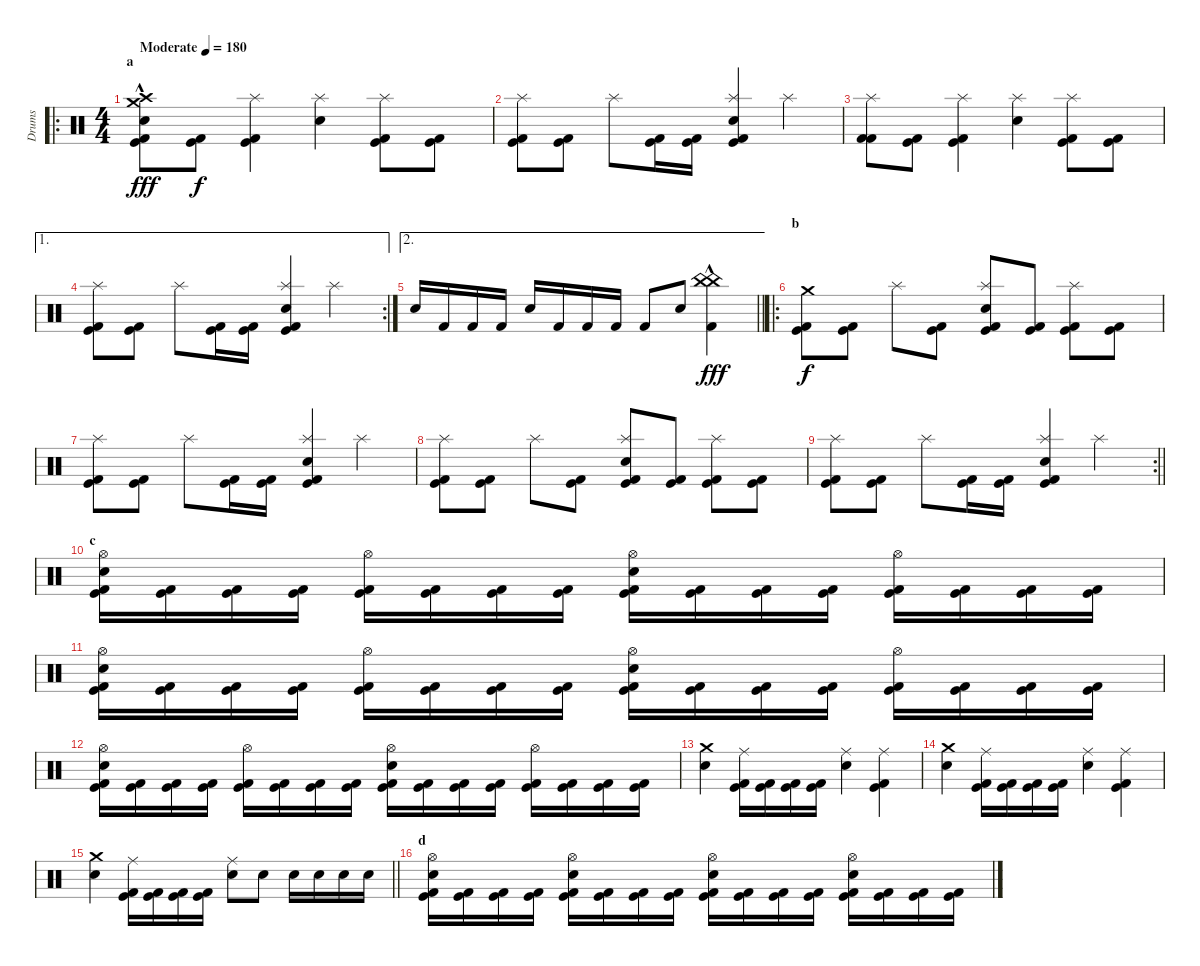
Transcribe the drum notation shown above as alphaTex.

\track ("Drums" "Drums") {instrument percussion}
\staff {score}
\articulation defaults
\ro
\ts (4 4)
\section ("" "a")
\tempo (180 "Moderate")
\clef neutral
\ks c
("Kick (hit) 2" "Snare (hit) 2" "Kick (hit)" "Crash high (hit)"{hac} "Crash medium (hit)"{hac}).8{dy fff} ("Kick (hit) 2" "Kick (hit)").8{dy f} ("Kick (hit) 2" "Kick (hit)" "Splash (hit)").4 ("Electric Snare (hit)" "Splash (hit)").4 ("Kick (hit) 2" "Kick (hit)" "Splash (hit)").8 ("Kick (hit) 2" "Kick (hit)").8 |
("Kick (hit) 2" "Kick (hit)" "Splash (hit)").8 ("Kick (hit) 2" "Kick (hit)").8 "Splash (hit)".8 ("Kick (hit) 2" "Kick (hit)").16 ("Kick (hit) 2" "Kick (hit)").16 ("Kick (hit) 2" "Electric Snare (hit)" "Kick (hit)" "Splash (hit)").4 "Splash (hit)".4 |
("Kick (hit) 2" "Kick (hit) 2" "Splash (hit)").8 ("Kick (hit) 2" "Kick (hit)").8 ("Kick (hit) 2" "Kick (hit)" "Splash (hit)").4 ("Electric Snare (hit)" "Splash (hit)").4 ("Kick (hit) 2" "Kick (hit)" "Splash (hit)").8 ("Kick (hit) 2" "Kick (hit)").8 |
\ae 1
\rc 2
("Kick (hit) 2" "Kick (hit)" "Splash (hit)").8 ("Kick (hit) 2" "Kick (hit)").8 "Splash (hit)".8 ("Kick (hit) 2" "Kick (hit)").16 ("Kick (hit) 2" "Kick (hit)").16 ("Kick (hit) 2" "Electric Snare (hit)" "Kick (hit)" "Splash (hit)").4 "Splash (hit)".4 |
\ae 2
\barLineRight lightlight "Electric Snare (hit)".16 "Kick (hit) 2".16 "Kick (hit) 2".16 "Kick (hit) 2".16 "Electric Snare (hit)".16 "Kick (hit) 2".16 "Kick (hit) 2".16 "Kick (hit) 2".16 "Kick (hit) 2".8 "Electric Snare (hit)".8
("Kick (hit) 2" "China (hit)"{hac} "China (hit)"{hac}).4{dy fff} |
\ro
\section ("" "b")
("Kick (hit) 2" "Kick (hit)" "Crash medium (hit)").8{dy f} ("Kick (hit) 2" "Kick (hit)").8 "Splash (hit)".8 ("Kick (hit) 2" "Kick (hit)").8 ("Kick (hit) 2" "Kick (hit)" "Splash (hit)" "Electric Snare (hit)").8 ("Kick (hit) 2" "Kick (hit)").8 ("Kick (hit) 2" "Kick (hit)" "Splash (hit)").8 ("Kick (hit) 2" "Kick (hit)").8 |
("Kick (hit) 2" "Kick (hit)" "Splash (hit)").8 ("Kick (hit) 2" "Kick (hit)").8 "Splash (hit)".8 ("Kick (hit) 2" "Kick (hit)").16 ("Kick (hit) 2" "Kick (hit)").16 ("Kick (hit) 2" "Electric Snare (hit)" "Kick (hit)" "Splash (hit)").4 "Splash (hit)".4 |
("Kick (hit) 2" "Kick (hit)" "Splash (hit)").8 ("Kick (hit) 2" "Kick (hit)").8 "Splash (hit)".8 ("Kick (hit) 2" "Kick (hit)").8 ("Kick (hit) 2" "Kick (hit)" "Splash (hit)" "Electric Snare (hit)").8 ("Kick (hit) 2" "Kick (hit)").8 ("Kick (hit) 2" "Kick (hit)" "Splash (hit)").8 ("Kick (hit) 2" "Kick (hit)").8 |
\rc 2
\barLineRight lightlight
("Kick (hit) 2" "Kick (hit)" "Splash (hit)").8 ("Kick (hit) 2" "Kick (hit)").8 "Splash (hit)".8 ("Kick (hit) 2" "Kick (hit)").16 ("Kick (hit) 2" "Kick (hit)").16 ("Kick (hit) 2" "Electric Snare (hit)" "Kick (hit)" "Splash (hit)").4 "Splash (hit)".4 |
\section ("" "c")
("Kick (hit)" "Kick (hit) 2" "Hi-Hat (open)" "Electric Snare (hit)").16 ("Kick (hit)" "Kick (hit) 2").16 ("Kick (hit)" "Kick (hit) 2").16 ("Kick (hit)" "Kick (hit) 2").16 ("Kick (hit)" "Kick (hit) 2" "Hi-Hat (open)").16 ("Kick (hit)" "Kick (hit) 2").16 ("Kick (hit)" "Kick (hit) 2").16 ("Kick (hit)" "Kick (hit) 2").16 ("Kick (hit)" "Kick (hit) 2" "Hi-Hat (open)" "Electric Snare (hit)").16 ("Kick (hit)" "Kick (hit) 2").16 ("Kick (hit)" "Kick (hit) 2").16 ("Kick (hit)" "Kick (hit) 2").16 ("Kick (hit)" "Kick (hit) 2" "Hi-Hat (open)").16 ("Kick (hit)" "Kick (hit) 2").16 ("Kick (hit)" "Kick (hit) 2").16 ("Kick (hit)" "Kick (hit) 2").16 |
("Kick (hit)" "Kick (hit) 2" "Hi-Hat (open)" "Electric Snare (hit)").16 ("Kick (hit)" "Kick (hit) 2").16 ("Kick (hit)" "Kick (hit) 2").16 ("Kick (hit)" "Kick (hit) 2").16 ("Kick (hit)" "Kick (hit) 2" "Hi-Hat (open)").16 ("Kick (hit)" "Kick (hit) 2").16 ("Kick (hit)" "Kick (hit) 2").16 ("Kick (hit)" "Kick (hit) 2").16 ("Kick (hit)" "Kick (hit) 2" "Hi-Hat (open)" "Electric Snare (hit)").16 ("Kick (hit)" "Kick (hit) 2").16 ("Kick (hit)" "Kick (hit) 2").16 ("Kick (hit)" "Kick (hit) 2").16 ("Kick (hit)" "Kick (hit) 2" "Hi-Hat (open)").16 ("Kick (hit)" "Kick (hit) 2").16 ("Kick (hit)" "Kick (hit) 2").16 ("Kick (hit)" "Kick (hit) 2").16 |
("Kick (hit)" "Kick (hit) 2" "Hi-Hat (open)" "Electric Snare (hit)").16 ("Kick (hit)" "Kick (hit) 2").16 ("Kick (hit)" "Kick (hit) 2").16 ("Kick (hit)" "Kick (hit) 2").16 ("Kick (hit)" "Kick (hit) 2" "Hi-Hat (open)").16 ("Kick (hit)" "Kick (hit) 2").16 ("Kick (hit)" "Kick (hit) 2").16 ("Kick (hit)" "Kick (hit) 2").16 ("Kick (hit)" "Kick (hit) 2" "Hi-Hat (open)" "Electric Snare (hit)").16 ("Kick (hit)" "Kick (hit) 2").16 ("Kick (hit)" "Kick (hit) 2").16 ("Kick (hit)" "Kick (hit) 2").16 ("Kick (hit)" "Kick (hit) 2" "Hi-Hat (open)").16 ("Kick (hit)" "Kick (hit) 2").16 ("Kick (hit)" "Kick (hit) 2").16 ("Kick (hit)" "Kick (hit) 2").16 |
("Electric Snare (hit)" "Crash medium (hit)").4 ("Kick (hit) 2" "Ride (middle)" "Kick (hit)").16 ("Kick (hit) 2" "Kick (hit)").16 ("Kick (hit) 2" "Kick (hit)").16 ("Kick (hit) 2" "Kick (hit)").16 ("Electric Snare (hit)" "Ride (middle)").4 ("Kick (hit) 2" "Ride (middle)" "Kick (hit)").4 |
("Electric Snare (hit)" "Crash medium (hit)").4 ("Kick (hit) 2" "Ride (middle)" "Kick (hit)").16 ("Kick (hit) 2" "Kick (hit)").16 ("Kick (hit) 2" "Kick (hit)").16 ("Kick (hit) 2" "Kick (hit)").16 ("Electric Snare (hit)" "Ride (middle)").4 ("Kick (hit) 2" "Ride (middle)" "Kick (hit)").4 |
\barLineRight lightlight
("Electric Snare (hit)" "Crash medium (hit)").4 ("Kick (hit) 2" "Ride (middle)" "Kick (hit)").16 ("Kick (hit) 2" "Kick (hit)").16 ("Kick (hit) 2" "Kick (hit)").16 ("Kick (hit) 2" "Kick (hit)").16 ("Electric Snare (hit)" "Ride (middle)").8 "Electric Snare (hit)".8 "Electric Snare (hit)".16 "Electric Snare (hit)".16 "Electric Snare (hit)".16 "Electric Snare (hit)".16 |
\section ("" "d")
("Kick (hit)" "Kick (hit) 2" "Hi-Hat (open)" "Electric Snare (hit)").16 ("Kick (hit)" "Kick (hit) 2").16 ("Kick (hit)" "Kick (hit) 2").16 ("Kick (hit)" "Kick (hit) 2").16 ("Kick (hit)" "Kick (hit) 2" "Hi-Hat (open)" "Electric Snare (hit)").16 ("Kick (hit)" "Kick (hit) 2").16 ("Kick (hit)" "Kick (hit) 2").16 ("Kick (hit)" "Kick (hit) 2").16 ("Kick (hit)" "Kick (hit) 2" "Hi-Hat (open)" "Electric Snare (hit)").16 ("Kick (hit)" "Kick (hit) 2").16 ("Kick (hit)" "Kick (hit) 2").16 ("Kick (hit)" "Kick (hit) 2").16 ("Kick (hit)" "Kick (hit) 2" "Hi-Hat (open)" "Electric Snare (hit)").16 ("Kick (hit)" "Kick (hit) 2").16 ("Kick (hit)" "Kick (hit) 2").16 ("Kick (hit)" "Kick (hit) 2").16
